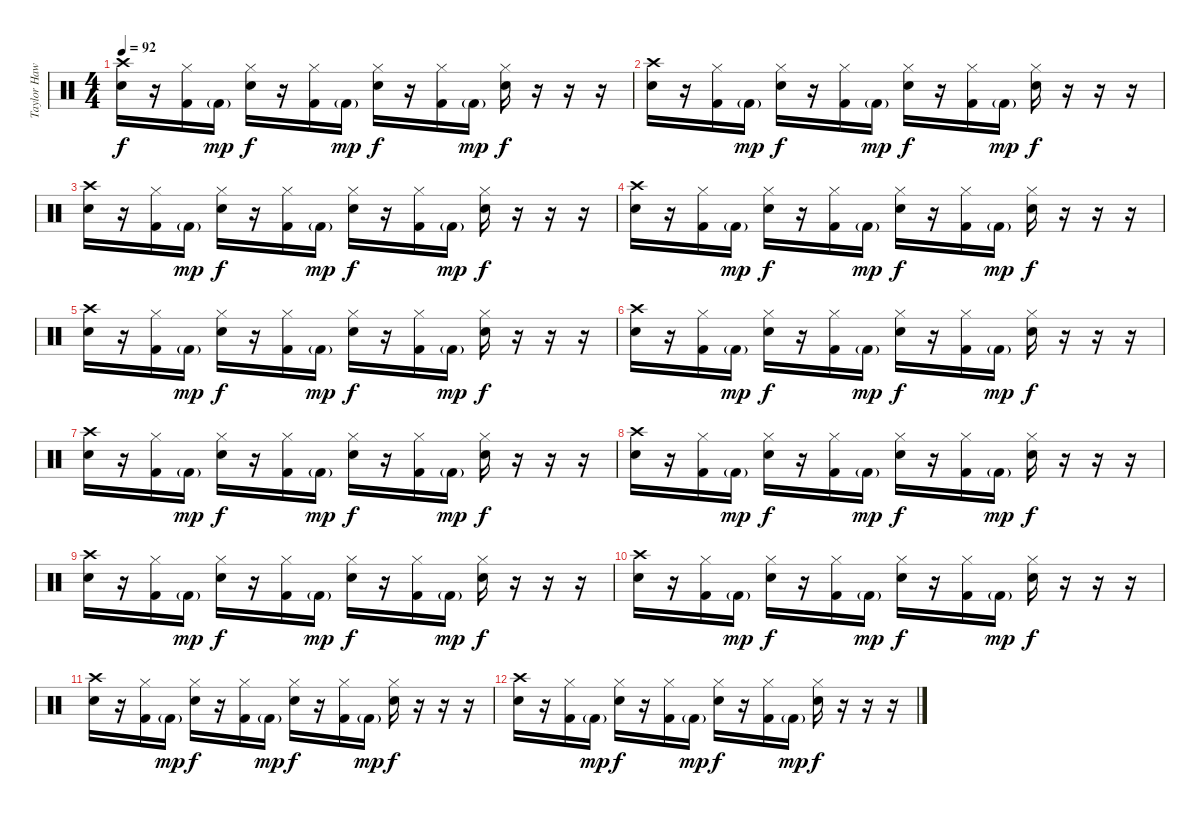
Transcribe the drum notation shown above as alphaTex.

\track ("Taylor Hawkins (Drums)" "Taylor Haw") {instrument percussion}
\staff {score}
\articulation defaults
\ts (4 4)
\tempo 92
\clef neutral
\ks c
("Crash high (hit)" "Electric Snare (hit)").16{dy f} r.16 ("Hi-Hat (closed)" "Kick (hit) 2").16 "Kick (hit) 2"{g}.16{dy mp} ("Hi-Hat (closed)" "Electric Snare (hit)").16{dy f} r.16 ("Hi-Hat (closed)" "Kick (hit) 2").16 "Kick (hit) 2"{g}.16{dy mp} ("Hi-Hat (closed)" "Electric Snare (hit)").16{dy f} r.16 ("Hi-Hat (closed)" "Kick (hit) 2").16 "Kick (hit) 2"{g}.16{dy mp} ("Hi-Hat (closed)" "Electric Snare (hit)").16{dy f} r.16 r.16 r.16 |
("Crash high (hit)" "Electric Snare (hit)").16 r.16 ("Hi-Hat (closed)" "Kick (hit) 2").16 "Kick (hit) 2"{g}.16{dy mp} ("Hi-Hat (closed)" "Electric Snare (hit)").16{dy f} r.16 ("Hi-Hat (closed)" "Kick (hit) 2").16 "Kick (hit) 2"{g}.16{dy mp} ("Hi-Hat (closed)" "Electric Snare (hit)").16{dy f} r.16 ("Hi-Hat (closed)" "Kick (hit) 2").16 "Kick (hit) 2"{g}.16{dy mp} ("Hi-Hat (closed)" "Electric Snare (hit)").16{dy f} r.16 r.16 r.16 |
("Crash high (hit)" "Electric Snare (hit)").16 r.16 ("Hi-Hat (closed)" "Kick (hit) 2").16 "Kick (hit) 2"{g}.16{dy mp} ("Hi-Hat (closed)" "Electric Snare (hit)").16{dy f} r.16 ("Hi-Hat (closed)" "Kick (hit) 2").16 "Kick (hit) 2"{g}.16{dy mp} ("Hi-Hat (closed)" "Electric Snare (hit)").16{dy f} r.16 ("Hi-Hat (closed)" "Kick (hit) 2").16 "Kick (hit) 2"{g}.16{dy mp} ("Hi-Hat (closed)" "Electric Snare (hit)").16{dy f} r.16 r.16 r.16 |
("Crash high (hit)" "Electric Snare (hit)").16 r.16 ("Hi-Hat (closed)" "Kick (hit) 2").16 "Kick (hit) 2"{g}.16{dy mp} ("Hi-Hat (closed)" "Electric Snare (hit)").16{dy f} r.16 ("Hi-Hat (closed)" "Kick (hit) 2").16 "Kick (hit) 2"{g}.16{dy mp} ("Hi-Hat (closed)" "Electric Snare (hit)").16{dy f} r.16 ("Hi-Hat (closed)" "Kick (hit) 2").16 "Kick (hit) 2"{g}.16{dy mp} ("Hi-Hat (closed)" "Electric Snare (hit)").16{dy f} r.16 r.16 r.16 |
("Crash high (hit)" "Electric Snare (hit)").16 r.16 ("Hi-Hat (closed)" "Kick (hit) 2").16 "Kick (hit) 2"{g}.16{dy mp} ("Hi-Hat (closed)" "Electric Snare (hit)").16{dy f} r.16 ("Hi-Hat (closed)" "Kick (hit) 2").16 "Kick (hit) 2"{g}.16{dy mp} ("Hi-Hat (closed)" "Electric Snare (hit)").16{dy f} r.16 ("Hi-Hat (closed)" "Kick (hit) 2").16 "Kick (hit) 2"{g}.16{dy mp} ("Hi-Hat (closed)" "Electric Snare (hit)").16{dy f} r.16 r.16 r.16 |
("Crash high (hit)" "Electric Snare (hit)").16 r.16 ("Hi-Hat (closed)" "Kick (hit) 2").16 "Kick (hit) 2"{g}.16{dy mp} ("Hi-Hat (closed)" "Electric Snare (hit)").16{dy f} r.16 ("Hi-Hat (closed)" "Kick (hit) 2").16 "Kick (hit) 2"{g}.16{dy mp} ("Hi-Hat (closed)" "Electric Snare (hit)").16{dy f} r.16 ("Hi-Hat (closed)" "Kick (hit) 2").16 "Kick (hit) 2"{g}.16{dy mp} ("Hi-Hat (closed)" "Electric Snare (hit)").16{dy f} r.16 r.16 r.16 |
("Crash high (hit)" "Electric Snare (hit)").16 r.16 ("Hi-Hat (closed)" "Kick (hit) 2").16 "Kick (hit) 2"{g}.16{dy mp} ("Hi-Hat (closed)" "Electric Snare (hit)").16{dy f} r.16 ("Hi-Hat (closed)" "Kick (hit) 2").16 "Kick (hit) 2"{g}.16{dy mp} ("Hi-Hat (closed)" "Electric Snare (hit)").16{dy f} r.16 ("Hi-Hat (closed)" "Kick (hit) 2").16 "Kick (hit) 2"{g}.16{dy mp} ("Hi-Hat (closed)" "Electric Snare (hit)").16{dy f} r.16 r.16 r.16 |
("Crash high (hit)" "Electric Snare (hit)").16 r.16 ("Hi-Hat (closed)" "Kick (hit) 2").16 "Kick (hit) 2"{g}.16{dy mp} ("Hi-Hat (closed)" "Electric Snare (hit)").16{dy f} r.16 ("Hi-Hat (closed)" "Kick (hit) 2").16 "Kick (hit) 2"{g}.16{dy mp} ("Hi-Hat (closed)" "Electric Snare (hit)").16{dy f} r.16 ("Hi-Hat (closed)" "Kick (hit) 2").16 "Kick (hit) 2"{g}.16{dy mp} ("Hi-Hat (closed)" "Electric Snare (hit)").16{dy f} r.16 r.16 r.16 |
("Crash high (hit)" "Electric Snare (hit)").16 r.16 ("Hi-Hat (closed)" "Kick (hit) 2").16 "Kick (hit) 2"{g}.16{dy mp} ("Hi-Hat (closed)" "Electric Snare (hit)").16{dy f} r.16 ("Hi-Hat (closed)" "Kick (hit) 2").16 "Kick (hit) 2"{g}.16{dy mp} ("Hi-Hat (closed)" "Electric Snare (hit)").16{dy f} r.16 ("Hi-Hat (closed)" "Kick (hit) 2").16 "Kick (hit) 2"{g}.16{dy mp} ("Hi-Hat (closed)" "Electric Snare (hit)").16{dy f} r.16 r.16 r.16 |
("Crash high (hit)" "Electric Snare (hit)").16 r.16 ("Hi-Hat (closed)" "Kick (hit) 2").16 "Kick (hit) 2"{g}.16{dy mp} ("Hi-Hat (closed)" "Electric Snare (hit)").16{dy f} r.16 ("Hi-Hat (closed)" "Kick (hit) 2").16 "Kick (hit) 2"{g}.16{dy mp} ("Hi-Hat (closed)" "Electric Snare (hit)").16{dy f} r.16 ("Hi-Hat (closed)" "Kick (hit) 2").16 "Kick (hit) 2"{g}.16{dy mp} ("Hi-Hat (closed)" "Electric Snare (hit)").16{dy f} r.16 r.16 r.16 |
("Crash high (hit)" "Electric Snare (hit)").16 r.16 ("Hi-Hat (closed)" "Kick (hit) 2").16 "Kick (hit) 2"{g}.16{dy mp} ("Hi-Hat (closed)" "Electric Snare (hit)").16{dy f} r.16 ("Hi-Hat (closed)" "Kick (hit) 2").16 "Kick (hit) 2"{g}.16{dy mp} ("Hi-Hat (closed)" "Electric Snare (hit)").16{dy f} r.16 ("Hi-Hat (closed)" "Kick (hit) 2").16 "Kick (hit) 2"{g}.16{dy mp} ("Hi-Hat (closed)" "Electric Snare (hit)").16{dy f} r.16 r.16 r.16 |
("Crash high (hit)" "Electric Snare (hit)").16 r.16 ("Hi-Hat (closed)" "Kick (hit) 2").16 "Kick (hit) 2"{g}.16{dy mp} ("Hi-Hat (closed)" "Electric Snare (hit)").16{dy f} r.16 ("Hi-Hat (closed)" "Kick (hit) 2").16 "Kick (hit) 2"{g}.16{dy mp} ("Hi-Hat (closed)" "Electric Snare (hit)").16{dy f} r.16 ("Hi-Hat (closed)" "Kick (hit) 2").16 "Kick (hit) 2"{g}.16{dy mp} ("Hi-Hat (closed)" "Electric Snare (hit)").16{dy f} r.16 r.16 r.16
